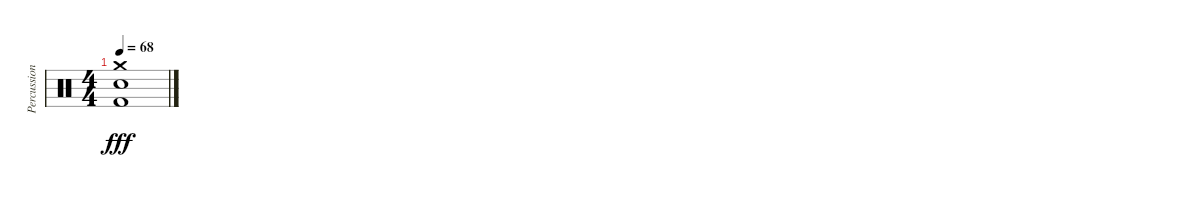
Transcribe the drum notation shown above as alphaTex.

\track ("Percussion" "Percussion") {instrument percussion}
\staff {score}
\articulation defaults
\ts (4 4)
\tempo 68
\clef neutral
\ks c
("Crash medium (hit)" "Snare (hit) 2" "Kick (hit) 2").1{dy fff}
